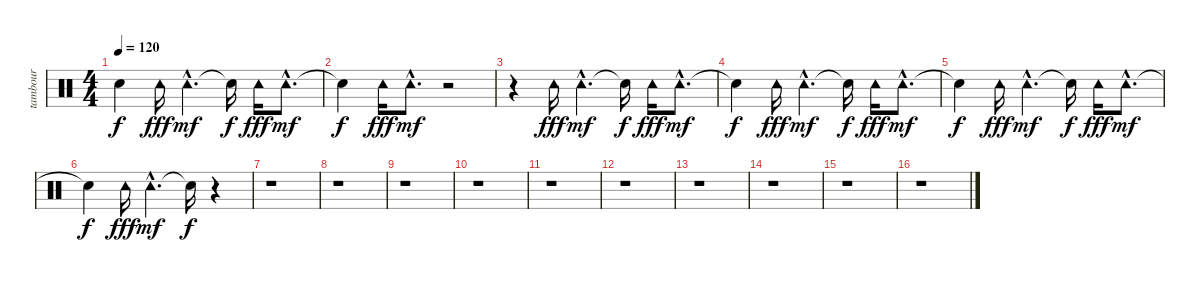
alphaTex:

\track ("tambour" "tambour") {instrument percussion}
\staff {score}
\articulation defaults
\ts (4 4)
\tempo 120
\clef neutral
\ks c "Snare (hit)"{t}.4{dy f} "Tambourine (hit)".16{dy fff} "Tambourine (hit)"{hac}.4{d dy mf} "Snare (hit)"{t}.16{dy f} "Tambourine (hit)".16{dy fff} "Tambourine (hit)"{hac}.8{d dy mf}
|
"Snare (hit)"{t}.4{dy f} "Tambourine (hit)".16{dy fff} "Tambourine (hit)"{hac}.8{d dy mf} r.2 |
r.4 "Tambourine (hit)".16{dy fff} "Tambourine (hit)"{hac}.4{d dy mf} "Snare (hit)"{t}.16{dy f} "Tambourine (hit)".16{dy fff} "Tambourine (hit)"{hac}.8{d dy mf} |
"Snare (hit)"{t}.4{dy f} "Tambourine (hit)".16{dy fff} "Tambourine (hit)"{hac}.4{d dy mf} "Snare (hit)"{t}.16{dy f} "Tambourine (hit)".16{dy fff} "Tambourine (hit)"{hac}.8{d dy mf} |
"Snare (hit)"{t}.4{dy f} "Tambourine (hit)".16{dy fff} "Tambourine (hit)"{hac}.4{d dy mf} "Snare (hit)"{t}.16{dy f} "Tambourine (hit)".16{dy fff} "Tambourine (hit)"{hac}.8{d dy mf} |
"Snare (hit)"{t}.4{dy f} "Tambourine (hit)".16{dy fff} "Tambourine (hit)"{hac}.4{d dy mf} "Snare (hit)"{t}.16{dy f} r.4 |
r.1 |
r.1 |
r.1 |
r.1 |
r.1 |
r.1 |
r.1 |
r.1 |
r.1 |
r.1
